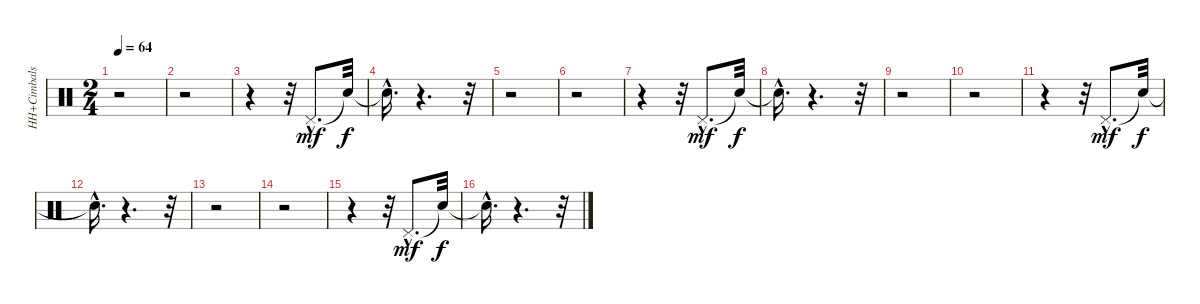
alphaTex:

\track ("HH+Cimbals" "HH+Cimbals") {instrument percussion}
\staff {score}
\articulation defaults
\ts (2 4)
\tempo 64
\clef neutral
\ks c
r.2{dy f} |
r.2 |
r.4 r.32 "Pedal Hi-Hat (hit)"{hac}.8{d dy mf} "Snare (hit)"{t}.32{dy f} |
"Snare (hit)"{hac t}.16{d} r.4{d} r.32 |
r.2 |
r.2 |
r.4 r.32 "Pedal Hi-Hat (hit)"{hac}.8{d dy mf} "Snare (hit)"{t}.32{dy f} |
"Snare (hit)"{hac t}.16{d} r.4{d} r.32 |
r.2 |
r.2 |
r.4 r.32 "Pedal Hi-Hat (hit)"{hac}.8{d dy mf} "Snare (hit)"{t}.32{dy f} |
"Snare (hit)"{hac t}.16{d} r.4{d} r.32 |
r.2 |
r.2 |
r.4 r.32 "Pedal Hi-Hat (hit)"{hac}.8{d dy mf} "Snare (hit)"{t}.32{dy f} |
"Snare (hit)"{hac t}.16{d} r.4{d} r.32
